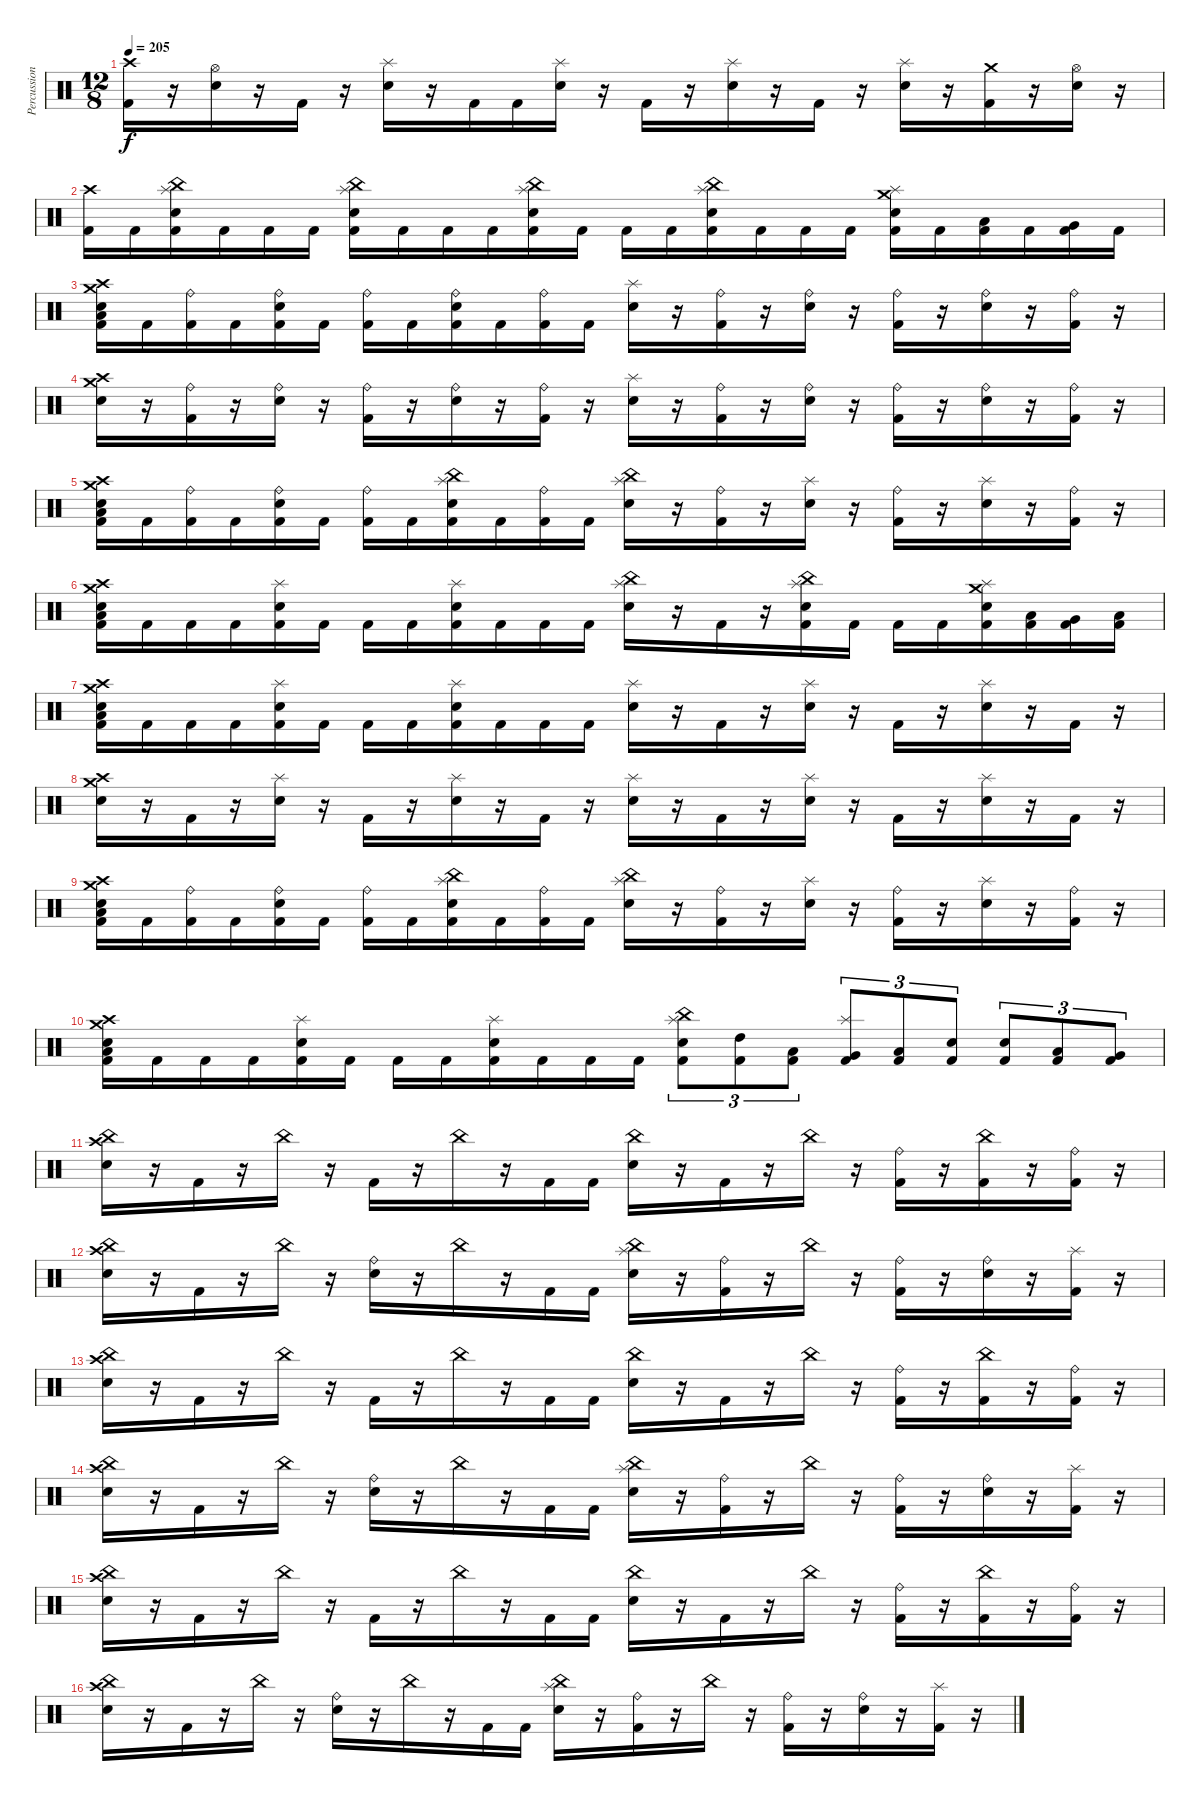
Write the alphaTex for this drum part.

\track ("Percussion" "Percussion") {instrument percussion}
\staff {score}
\articulation defaults
\ts (12 8)
\tempo 205
\clef neutral
\ks c
("Crash high (hit)" "Kick (hit) 2").16{dy f} r.16 ("Hi-Hat (open)" "Electric Snare (hit)").16 r.16 "Kick (hit) 2".16 r.16 ("Splash (hit)" "Electric Snare (hit)").16 r.16 "Kick (hit) 2".16 "Kick (hit) 2".16 ("Splash (hit)" "Electric Snare (hit)").16 r.16 "Kick (hit) 2".16 r.16 ("Splash (hit)" "Electric Snare (hit)").16 r.16 "Kick (hit) 2".16 r.16 ("Splash (hit)" "Electric Snare (hit)").16 r.16 ("Crash medium (hit)" "Kick (hit) 2").16 r.16 ("Hi-Hat (open)" "Electric Snare (hit)").16 r.16 |
("Crash high (hit)" "Kick (hit) 2").16 "Kick (hit) 2".16 ("China (hit)" "Splash (hit)" "Electric Snare (hit)" "Kick (hit) 2").16 "Kick (hit) 2".16 "Kick (hit) 2".16 "Kick (hit) 2".16 ("China (hit)" "Splash (hit)" "Electric Snare (hit)" "Kick (hit) 2").16 "Kick (hit) 2".16 "Kick (hit) 2".16 "Kick (hit) 2".16 ("China (hit)" "Splash (hit)" "Electric Snare (hit)" "Kick (hit) 2").16 "Kick (hit) 2".16 "Kick (hit) 2".16 "Kick (hit) 2".16 ("China (hit)" "Splash (hit)" "Electric Snare (hit)" "Kick (hit) 2").16 "Kick (hit) 2".16 "Kick (hit) 2".16 "Kick (hit) 2".16 ("Crash medium (hit)" "Splash (hit)" "Electric Snare (hit)" "Kick (hit) 2").16 "Kick (hit) 2".16 ("Low Tom (hit)" "Kick (hit) 2").16 "Kick (hit) 2".16 ("Very Low Tom (hit)" "Kick (hit) 2").16 "Kick (hit) 2".16 |
("Crash high (hit)" "Crash medium (hit)" "Electric Snare (hit)" "Low Floor Tom (hit)" "Kick (hit) 2").16 "Kick (hit) 2".16 ("Ride (bell)" "Kick (hit) 2").16 "Kick (hit) 2".16 ("Ride (bell)" "Electric Snare (hit)" "Kick (hit) 2").16 "Kick (hit) 2".16 ("Ride (bell)" "Kick (hit) 2").16 "Kick (hit) 2".16 ("Ride (bell)" "Electric Snare (hit)" "Kick (hit) 2").16 "Kick (hit) 2".16 ("Ride (bell)" "Kick (hit) 2").16 "Kick (hit) 2".16 ("Splash (hit)" "Electric Snare (hit)").16 r.16 ("Ride (bell)" "Kick (hit) 2").16 r.16 ("Ride (bell)" "Electric Snare (hit)").16 r.16 ("Ride (bell)" "Kick (hit) 2").16 r.16 ("Ride (bell)" "Electric Snare (hit)").16 r.16 ("Ride (bell)" "Kick (hit) 2").16 r.16 |
("Crash high (hit)" "Crash medium (hit)" "Electric Snare (hit)").16 r.16 ("Ride (bell)" "Kick (hit) 2").16 r.16 ("Ride (bell)" "Electric Snare (hit)").16 r.16 ("Ride (bell)" "Kick (hit) 2").16 r.16 ("Ride (bell)" "Electric Snare (hit)").16 r.16 ("Ride (bell)" "Kick (hit) 2").16 r.16 ("Splash (hit)" "Electric Snare (hit)").16 r.16 ("Ride (bell)" "Kick (hit) 2").16 r.16 ("Ride (bell)" "Electric Snare (hit)").16 r.16 ("Ride (bell)" "Kick (hit) 2").16 r.16 ("Ride (bell)" "Electric Snare (hit)").16 r.16 ("Ride (bell)" "Kick (hit) 2").16 r.16 |
("Crash high (hit)" "Crash medium (hit)" "Electric Snare (hit)" "Low Floor Tom (hit)" "Kick (hit) 2").16 "Kick (hit) 2".16 ("Ride (bell)" "Kick (hit) 2").16 "Kick (hit) 2".16 ("Ride (bell)" "Electric Snare (hit)" "Kick (hit) 2").16 "Kick (hit) 2".16 ("Ride (bell)" "Kick (hit) 2").16 "Kick (hit) 2".16 ("China (hit)" "Splash (hit)" "Electric Snare (hit)" "Kick (hit) 2").16 "Kick (hit) 2".16 ("Ride (bell)" "Kick (hit) 2").16 "Kick (hit) 2".16 ("China (hit)" "Splash (hit)" "Electric Snare (hit)").16 r.16 ("Ride (bell)" "Kick (hit) 2").16 r.16 ("Splash (hit)" "Electric Snare (hit)").16 r.16 ("Ride (bell)" "Kick (hit) 2").16 r.16 ("Splash (hit)" "Electric Snare (hit)").16 r.16 ("Ride (bell)" "Kick (hit) 2").16 r.16 |
("Crash high (hit)" "Crash medium (hit)" "Electric Snare (hit)" "Low Floor Tom (hit)" "Kick (hit) 2").16 "Kick (hit) 2".16 "Kick (hit) 2".16 "Kick (hit) 2".16 ("Splash (hit)" "Electric Snare (hit)" "Kick (hit) 2").16 "Kick (hit) 2".16 "Kick (hit) 2".16 "Kick (hit) 2".16 ("Splash (hit)" "Electric Snare (hit)" "Kick (hit) 2").16 "Kick (hit) 2".16 "Kick (hit) 2".16 "Kick (hit) 2".16 ("Splash (hit)" "China (hit)" "Electric Snare (hit)").16 r.16 "Kick (hit) 2".16 r.16 ("Splash (hit)" "China (hit)" "Electric Snare (hit)" "Kick (hit) 2").16 "Kick (hit) 2".16 "Kick (hit) 2".16 "Kick (hit) 2".16 ("Splash (hit)" "Crash medium (hit)" "Electric Snare (hit)" "Kick (hit) 2").16 ("Low Tom (hit)" "Kick (hit) 2").16 ("Very Low Tom (hit)" "Kick (hit) 2").16 ("Low Floor Tom (hit)" "Kick (hit) 2").16 |
("Crash high (hit)" "Crash medium (hit)" "Electric Snare (hit)" "Low Floor Tom (hit)" "Kick (hit) 2").16 "Kick (hit) 2".16 "Kick (hit) 2".16 "Kick (hit) 2".16 ("Splash (hit)" "Electric Snare (hit)" "Kick (hit) 2").16 "Kick (hit) 2".16 "Kick (hit) 2".16 "Kick (hit) 2".16 ("Splash (hit)" "Electric Snare (hit)" "Kick (hit) 2").16 "Kick (hit) 2".16 "Kick (hit) 2".16 "Kick (hit) 2".16 ("Splash (hit)" "Electric Snare (hit)").16 r.16 "Kick (hit) 2".16 r.16 ("Splash (hit)" "Electric Snare (hit)").16 r.16 "Kick (hit) 2".16 r.16 ("Splash (hit)" "Electric Snare (hit)").16 r.16 "Kick (hit) 2".16 r.16 |
("Crash high (hit)" "Crash medium (hit)" "Electric Snare (hit)").16 r.16 "Kick (hit) 2".16 r.16 ("Splash (hit)" "Electric Snare (hit)").16 r.16 "Kick (hit) 2".16 r.16 ("Splash (hit)" "Electric Snare (hit)").16 r.16 "Kick (hit) 2".16 r.16 ("Splash (hit)" "Electric Snare (hit)").16 r.16 "Kick (hit) 2".16 r.16 ("Splash (hit)" "Electric Snare (hit)").16 r.16 "Kick (hit) 2".16 r.16 ("Splash (hit)" "Electric Snare (hit)").16 r.16 "Kick (hit) 2".16 r.16 |
("Crash high (hit)" "Crash medium (hit)" "Electric Snare (hit)" "Low Floor Tom (hit)" "Kick (hit) 2").16 "Kick (hit) 2".16 ("Ride (bell)" "Kick (hit) 2").16 "Kick (hit) 2".16 ("Ride (bell)" "Electric Snare (hit)" "Kick (hit) 2").16 "Kick (hit) 2".16 ("Ride (bell)" "Kick (hit) 2").16 "Kick (hit) 2".16 ("China (hit)" "Splash (hit)" "Electric Snare (hit)" "Kick (hit) 2").16 "Kick (hit) 2".16 ("Ride (bell)" "Kick (hit) 2").16 "Kick (hit) 2".16 ("China (hit)" "Splash (hit)" "Electric Snare (hit)").16 r.16 ("Ride (bell)" "Kick (hit) 2").16 r.16 ("Splash (hit)" "Electric Snare (hit)").16 r.16 ("Ride (bell)" "Kick (hit) 2").16 r.16 ("Splash (hit)" "Electric Snare (hit)").16 r.16 ("Ride (bell)" "Kick (hit) 2").16 r.16 |
("Crash high (hit)" "Crash medium (hit)" "Electric Snare (hit)" "Low Floor Tom (hit)" "Kick (hit) 2").16 "Kick (hit) 2".16 "Kick (hit) 2".16 "Kick (hit) 2".16 ("Splash (hit)" "Electric Snare (hit)" "Kick (hit) 2").16 "Kick (hit) 2".16 "Kick (hit) 2".16 "Kick (hit) 2".16 ("Splash (hit)" "Electric Snare (hit)" "Kick (hit) 2").16 "Kick (hit) 2".16 "Kick (hit) 2".16 "Kick (hit) 2".16 ("Splash (hit)" "China (hit)" "Electric Snare (hit)" "Kick (hit) 2").8{tu (3 2)} ("High Tom (hit)" "Kick (hit) 2").8{tu (3 2)} ("Low Tom (hit)" "Kick (hit) 2").8{tu (3 2)} ("Splash (hit)" "Very Low Tom (hit)" "Kick (hit) 2").8{tu (3 2)} ("Low Floor Tom (hit)" "Kick (hit) 2").8{tu (3 2)} ("Electric Snare (hit)" "Kick (hit) 2").8{tu (3 2)} ("Electric Snare (hit)" "Kick (hit) 2").8{tu (3 2)} ("Low Tom (hit)" "Kick (hit) 2").8{tu (3 2)} ("Very Low Tom (hit)" "Kick (hit) 2").8{tu (3 2)} |
("Crash high (hit)" "China (hit)" "Electric Snare (hit)").16 r.16 "Kick (hit) 2".16 r.16 "China (hit)".16 r.16 "Kick (hit) 2".16 r.16 "China (hit)".16 r.16 "Kick (hit) 2".16 "Kick (hit) 2".16 ("China (hit)" "Electric Snare (hit)").16 r.16 "Kick (hit) 2".16 r.16 "China (hit)".16 r.16 ("Ride (bell)" "Kick (hit) 2").16 r.16 ("China (hit)" "Kick (hit) 2").16 r.16 ("Ride (bell)" "Kick (hit) 2").16 r.16 |
("Crash high (hit)" "China (hit)" "Electric Snare (hit)").16 r.16 "Kick (hit) 2".16 r.16 "China (hit)".16 r.16 ("Ride (bell)" "Electric Snare (hit)").16 r.16 "China (hit)".16 r.16 "Kick (hit) 2".16 "Kick (hit) 2".16 ("China (hit)" "Splash (hit)" "Electric Snare (hit)").16 r.16 ("Ride (bell)" "Kick (hit) 2").16 r.16 "China (hit)".16 r.16 ("Ride (bell)" "Kick (hit) 2").16 r.16 ("Ride (bell)" "Electric Snare (hit)").16 r.16 ("Splash (hit)" "Kick (hit) 2").16 r.16 |
("Crash high (hit)" "China (hit)" "Electric Snare (hit)").16 r.16 "Kick (hit) 2".16 r.16 "China (hit)".16 r.16 "Kick (hit) 2".16 r.16 "China (hit)".16 r.16 "Kick (hit) 2".16 "Kick (hit) 2".16 ("China (hit)" "Electric Snare (hit)").16 r.16 "Kick (hit) 2".16 r.16 "China (hit)".16 r.16 ("Ride (bell)" "Kick (hit) 2").16 r.16 ("China (hit)" "Kick (hit) 2").16 r.16 ("Ride (bell)" "Kick (hit) 2").16 r.16 |
("Crash high (hit)" "China (hit)" "Electric Snare (hit)").16 r.16 "Kick (hit) 2".16 r.16 "China (hit)".16 r.16 ("Ride (bell)" "Electric Snare (hit)").16 r.16 "China (hit)".16 r.16 "Kick (hit) 2".16 "Kick (hit) 2".16 ("China (hit)" "Splash (hit)" "Electric Snare (hit)").16 r.16 ("Ride (bell)" "Kick (hit) 2").16 r.16 "China (hit)".16 r.16 ("Ride (bell)" "Kick (hit) 2").16 r.16 ("Ride (bell)" "Electric Snare (hit)").16 r.16 ("Splash (hit)" "Kick (hit) 2").16 r.16 |
("Crash high (hit)" "China (hit)" "Electric Snare (hit)").16 r.16 "Kick (hit) 2".16 r.16 "China (hit)".16 r.16 "Kick (hit) 2".16 r.16 "China (hit)".16 r.16 "Kick (hit) 2".16 "Kick (hit) 2".16 ("China (hit)" "Electric Snare (hit)").16 r.16 "Kick (hit) 2".16 r.16 "China (hit)".16 r.16 ("Ride (bell)" "Kick (hit) 2").16 r.16 ("China (hit)" "Kick (hit) 2").16 r.16 ("Ride (bell)" "Kick (hit) 2").16 r.16 |
("Crash high (hit)" "China (hit)" "Electric Snare (hit)").16 r.16 "Kick (hit) 2".16 r.16 "China (hit)".16 r.16 ("Ride (bell)" "Electric Snare (hit)").16 r.16 "China (hit)".16 r.16 "Kick (hit) 2".16 "Kick (hit) 2".16 ("China (hit)" "Splash (hit)" "Electric Snare (hit)").16 r.16 ("Ride (bell)" "Kick (hit) 2").16 r.16 "China (hit)".16 r.16 ("Ride (bell)" "Kick (hit) 2").16 r.16 ("Ride (bell)" "Electric Snare (hit)").16 r.16 ("Splash (hit)" "Kick (hit) 2").16 r.16
